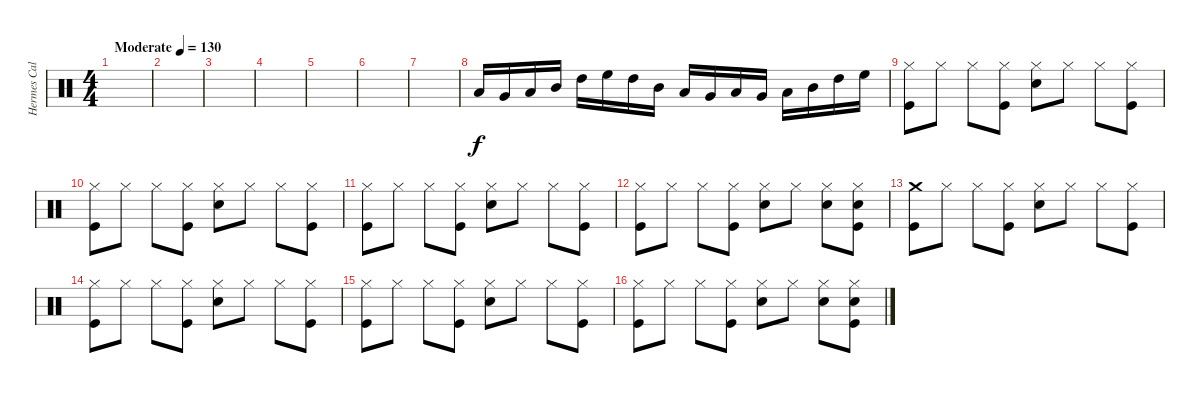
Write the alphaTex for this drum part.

\track ("Hermes Calabria" "Hermes Cal") {instrument percussion}
\staff {score}
\articulation defaults
\ts (4 4)
\tempo (130 "Moderate")
\clef neutral
\ks c
|
|
|
|
|
|
|
"Low Floor Tom (hit)".16 "Very Low Tom (hit)".16 "Low Tom (hit)".16 "Mid Tom (hit)".16 "High Tom (hit)".16 "High Floor Tom (hit)".16 "High Tom (hit)".16 "Mid Tom (hit)".16 "Low Tom (hit)".16 "Very Low Tom (hit)".16 "Low Floor Tom (hit)".16 "Very Low Tom (hit)".16 "Low Tom (hit)".16 "Mid Tom (hit)".16 "High Tom (hit)".16 "High Floor Tom (hit)".16 |
("Hi-Hat (closed)" "Kick (hit)").8 "Hi-Hat (closed)".8 "Hi-Hat (closed)".8 ("Hi-Hat (closed)" "Kick (hit)").8 ("Hi-Hat (closed)" "Snare (hit) 2").8 "Hi-Hat (closed)".8 "Hi-Hat (closed)".8 ("Hi-Hat (closed)" "Kick (hit)").8 |
("Hi-Hat (closed)" "Kick (hit)").8 "Hi-Hat (closed)".8 "Hi-Hat (closed)".8 ("Hi-Hat (closed)" "Kick (hit)").8 ("Hi-Hat (closed)" "Snare (hit) 2").8 "Hi-Hat (closed)".8 "Hi-Hat (closed)".8 ("Hi-Hat (closed)" "Kick (hit)").8 |
("Hi-Hat (closed)" "Kick (hit)").8 "Hi-Hat (closed)".8 "Hi-Hat (closed)".8 ("Hi-Hat (closed)" "Kick (hit)").8 ("Hi-Hat (closed)" "Snare (hit) 2").8 "Hi-Hat (closed)".8 "Hi-Hat (closed)".8 ("Hi-Hat (closed)" "Kick (hit)").8 |
("Hi-Hat (closed)" "Kick (hit)").8 "Hi-Hat (closed)".8 "Hi-Hat (closed)".8 ("Hi-Hat (closed)" "Kick (hit)").8 ("Hi-Hat (closed)" "Snare (hit) 2").8 "Hi-Hat (closed)".8 ("Hi-Hat (closed)" "Snare (hit) 2").8 ("Hi-Hat (closed)" "Snare (hit) 2" "Kick (hit)").8 |
("Crash medium (hit)" "Kick (hit)").8 "Hi-Hat (closed)".8 "Hi-Hat (closed)".8 ("Hi-Hat (closed)" "Kick (hit)").8 ("Hi-Hat (closed)" "Snare (hit) 2").8 "Hi-Hat (closed)".8 "Hi-Hat (closed)".8 ("Hi-Hat (closed)" "Kick (hit)").8 |
("Hi-Hat (closed)" "Kick (hit)").8 "Hi-Hat (closed)".8 "Hi-Hat (closed)".8 ("Hi-Hat (closed)" "Kick (hit)").8 ("Hi-Hat (closed)" "Snare (hit) 2").8 "Hi-Hat (closed)".8 "Hi-Hat (closed)".8 ("Hi-Hat (closed)" "Kick (hit)").8 |
("Hi-Hat (closed)" "Kick (hit)").8 "Hi-Hat (closed)".8 "Hi-Hat (closed)".8 ("Hi-Hat (closed)" "Kick (hit)").8 ("Hi-Hat (closed)" "Snare (hit) 2").8 "Hi-Hat (closed)".8 "Hi-Hat (closed)".8 ("Hi-Hat (closed)" "Kick (hit)").8 |
("Hi-Hat (closed)" "Kick (hit)").8 "Hi-Hat (closed)".8 "Hi-Hat (closed)".8 ("Hi-Hat (closed)" "Kick (hit)").8 ("Hi-Hat (closed)" "Snare (hit) 2").8 "Hi-Hat (closed)".8 ("Hi-Hat (closed)" "Snare (hit) 2").8 ("Hi-Hat (closed)" "Snare (hit) 2" "Kick (hit)").8
